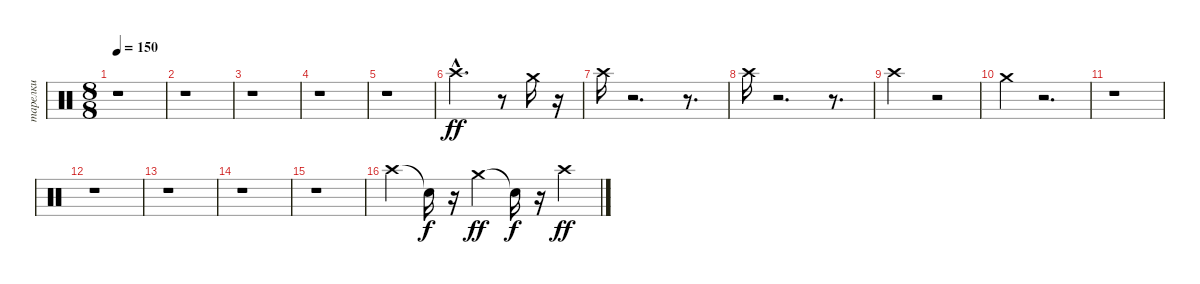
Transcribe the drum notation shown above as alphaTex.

\track ("тарелки" "тарелки") {instrument percussion}
\staff {score}
\articulation defaults
\ts (8 8)
\tempo 150
\clef neutral
\ks c
r.1{dy ff} |
r.1 |
r.1 |
r.1 |
r.1 |
"Crash high (hit)"{hac}.2{d} r.8 "Crash medium (hit)".16 r.16 |
"Crash high (hit)".16 r.2{d} r.8{d} |
"Crash high (hit)".16 r.2{d} r.8{d} |
"Crash high (hit)".2 r.2 |
"Crash medium (hit)".4 r.2{d} |
r.1 |
r.1 |
r.1 |
r.1 |
r.1 |
"Crash high (hit)".4 "Snare (hit)"{t}.16{dy f} r.16 "Crash medium (hit)".4{dy ff} "Snare (hit)"{t}.16{dy f} r.16 "Crash high (hit)".4{dy ff}
